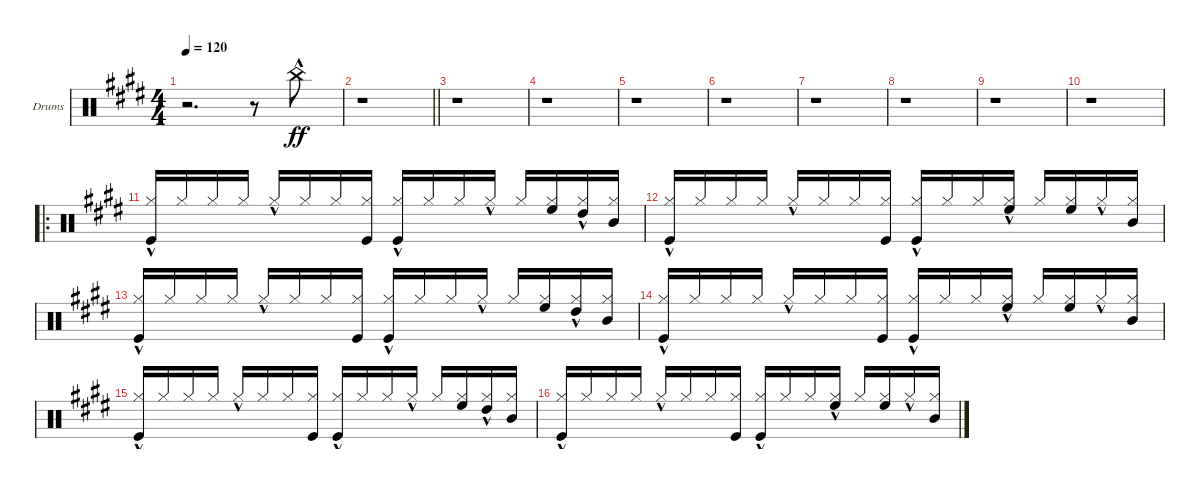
\defaultSystemsLayout 4
\bracketExtendMode groupsimilarinstruments
\firstSystemTrackNameOrientation horizontal
\otherSystemsTrackNameOrientation horizontal
\track ("Drumkit" "Drums") {instrument percussion}
\staff {score}
\articulation defaults
\ts (4 4)
\tempo 120
\clef neutral
\ks e
r.2{d dy ff} r.8 "China (hit)"{hac}.8 |
\barLineRight lightlight
r.1 |
r.1 |
r.1 |
r.1 |
r.1 |
r.1 |
r.1 |
r.1 |
r.1 |
\ro
("Hi-Hat (closed)"{hac} "Kick (hit)").16{beam invert} "Hi-Hat (closed)".16 "Hi-Hat (closed)".16 "Hi-Hat (closed)".16 "Hi-Hat (closed)"{hac}.16 "Hi-Hat (closed)".16 "Hi-Hat (closed)".16 ("Hi-Hat (closed)" "Kick (hit)").16 ("Hi-Hat (closed)"{hac} "Kick (hit)").16{beam invert} "Hi-Hat (closed)".16 "Hi-Hat (closed)".16 "Hi-Hat (closed)"{hac}.16 "Hi-Hat (closed)".16{beam invert} ("Hi-Hat (closed)" "High Floor Tom (hit)").16 ("Hi-Hat (closed)"{hac} "High Tom (hit)").16 ("Hi-Hat (closed)" "Mid Tom (hit)").16 |
("Hi-Hat (closed)"{hac} "Kick (hit)").16{beam invert} "Hi-Hat (closed)".16 "Hi-Hat (closed)".16 "Hi-Hat (closed)".16 "Hi-Hat (closed)"{hac}.16 "Hi-Hat (closed)".16 "Hi-Hat (closed)".16 ("Hi-Hat (closed)" "Kick (hit)").16 ("Hi-Hat (closed)"{hac} "Kick (hit)").16{beam invert} "Hi-Hat (closed)".16 "Hi-Hat (closed)".16 ("Hi-Hat (closed)"{hac} "High Floor Tom (hit)").16 "Hi-Hat (closed)".16{beam invert} ("Hi-Hat (closed)" "High Floor Tom (hit)").16 "Hi-Hat (closed)"{hac}.16 ("Hi-Hat (closed)" "Mid Tom (hit)").16 |
("Hi-Hat (closed)"{hac} "Kick (hit)").16{beam invert} "Hi-Hat (closed)".16 "Hi-Hat (closed)".16 "Hi-Hat (closed)".16 "Hi-Hat (closed)"{hac}.16 "Hi-Hat (closed)".16 "Hi-Hat (closed)".16 ("Hi-Hat (closed)" "Kick (hit)").16 ("Hi-Hat (closed)"{hac} "Kick (hit)").16{beam invert} "Hi-Hat (closed)".16 "Hi-Hat (closed)".16 "Hi-Hat (closed)"{hac}.16 "Hi-Hat (closed)".16{beam invert} ("Hi-Hat (closed)" "High Floor Tom (hit)").16 ("Hi-Hat (closed)"{hac} "High Tom (hit)").16 ("Hi-Hat (closed)" "Mid Tom (hit)").16 |
("Hi-Hat (closed)"{hac} "Kick (hit)").16{beam invert} "Hi-Hat (closed)".16 "Hi-Hat (closed)".16 "Hi-Hat (closed)".16 "Hi-Hat (closed)"{hac}.16 "Hi-Hat (closed)".16 "Hi-Hat (closed)".16 ("Hi-Hat (closed)" "Kick (hit)").16 ("Hi-Hat (closed)"{hac} "Kick (hit)").16{beam invert} "Hi-Hat (closed)".16 "Hi-Hat (closed)".16 ("Hi-Hat (closed)"{hac} "High Floor Tom (hit)").16 "Hi-Hat (closed)".16{beam invert} ("Hi-Hat (closed)" "High Floor Tom (hit)").16 "Hi-Hat (closed)"{hac}.16 ("Hi-Hat (closed)" "Mid Tom (hit)").16 |
("Hi-Hat (closed)"{hac} "Kick (hit)").16{beam invert} "Hi-Hat (closed)".16 "Hi-Hat (closed)".16 "Hi-Hat (closed)".16 "Hi-Hat (closed)"{hac}.16 "Hi-Hat (closed)".16 "Hi-Hat (closed)".16 ("Hi-Hat (closed)" "Kick (hit)").16 ("Hi-Hat (closed)"{hac} "Kick (hit)").16{beam invert} "Hi-Hat (closed)".16 "Hi-Hat (closed)".16 "Hi-Hat (closed)"{hac}.16 "Hi-Hat (closed)".16{beam invert} ("Hi-Hat (closed)" "High Floor Tom (hit)").16 ("Hi-Hat (closed)"{hac} "High Tom (hit)").16 ("Hi-Hat (closed)" "Mid Tom (hit)").16 |
("Hi-Hat (closed)"{hac} "Kick (hit)").16{beam invert} "Hi-Hat (closed)".16 "Hi-Hat (closed)".16 "Hi-Hat (closed)".16 "Hi-Hat (closed)"{hac}.16 "Hi-Hat (closed)".16 "Hi-Hat (closed)".16 ("Hi-Hat (closed)" "Kick (hit)").16 ("Hi-Hat (closed)"{hac} "Kick (hit)").16{beam invert} "Hi-Hat (closed)".16 "Hi-Hat (closed)".16 ("Hi-Hat (closed)"{hac} "High Floor Tom (hit)").16 "Hi-Hat (closed)".16{beam invert} ("Hi-Hat (closed)" "High Floor Tom (hit)").16 "Hi-Hat (closed)"{hac}.16 ("Hi-Hat (closed)" "Mid Tom (hit)").16
